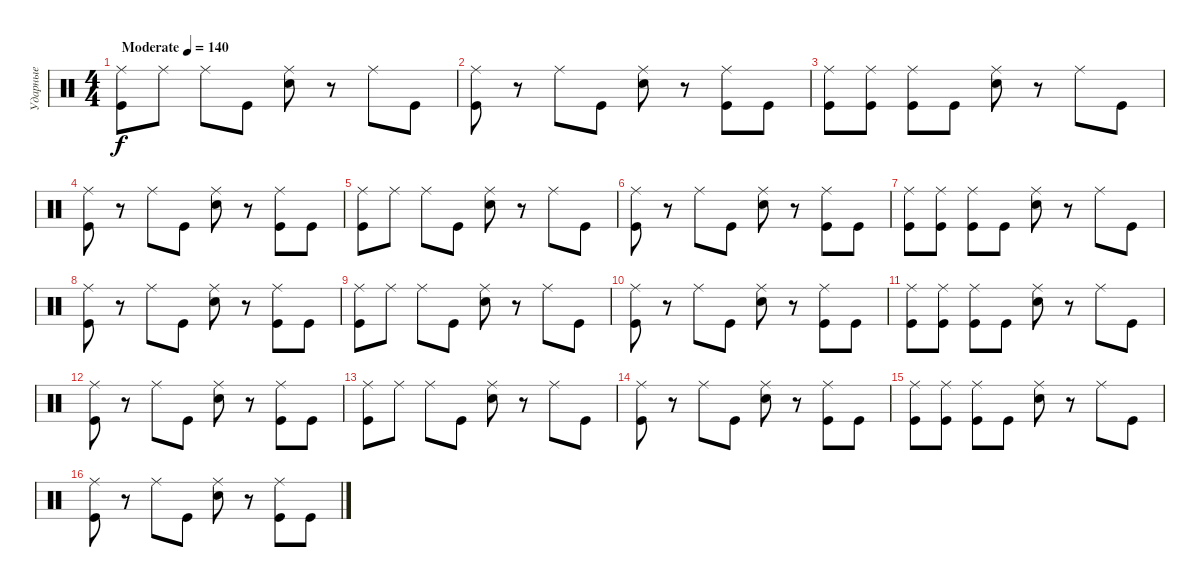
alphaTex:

\track ("Ударные" "Ударные") {instrument percussion}
\staff {score}
\articulation defaults
\ts (4 4)
\tempo (140 "Moderate")
\clef neutral
\ks c
("Ride (middle)" "Kick (hit)").8{dy f} "Ride (middle)".8 "Ride (middle)".8 "Kick (hit)".8 ("Ride (middle)" "Electric Snare (hit)").8 r.8 "Ride (middle)".8 "Kick (hit)".8 |
("Ride (middle)" "Kick (hit)").8 r.8 "Ride (middle)".8 "Kick (hit)".8 ("Ride (middle)" "Electric Snare (hit)").8 r.8 ("Ride (middle)" "Kick (hit)").8 "Kick (hit)".8 |
("Ride (middle)" "Kick (hit)").8 ("Ride (middle)" "Kick (hit)").8 ("Ride (middle)" "Kick (hit)").8 "Kick (hit)".8 ("Ride (middle)" "Electric Snare (hit)").8 r.8 "Ride (middle)".8 "Kick (hit)".8 |
("Ride (middle)" "Kick (hit)").8 r.8 "Ride (middle)".8 "Kick (hit)".8 ("Ride (middle)" "Electric Snare (hit)").8 r.8 ("Ride (middle)" "Kick (hit)").8 "Kick (hit)".8 |
("Ride (middle)" "Kick (hit)").8 "Ride (middle)".8 "Ride (middle)".8 "Kick (hit)".8 ("Ride (middle)" "Electric Snare (hit)").8 r.8 "Ride (middle)".8 "Kick (hit)".8 |
("Ride (middle)" "Kick (hit)").8 r.8 "Ride (middle)".8 "Kick (hit)".8 ("Ride (middle)" "Electric Snare (hit)").8 r.8 ("Ride (middle)" "Kick (hit)").8 "Kick (hit)".8 |
("Ride (middle)" "Kick (hit)").8 ("Ride (middle)" "Kick (hit)").8 ("Ride (middle)" "Kick (hit)").8 "Kick (hit)".8 ("Ride (middle)" "Electric Snare (hit)").8 r.8 "Ride (middle)".8 "Kick (hit)".8 |
("Ride (middle)" "Kick (hit)").8 r.8 "Ride (middle)".8 "Kick (hit)".8 ("Ride (middle)" "Electric Snare (hit)").8 r.8 ("Ride (middle)" "Kick (hit)").8 "Kick (hit)".8 |
("Ride (middle)" "Kick (hit)").8 "Ride (middle)".8 "Ride (middle)".8 "Kick (hit)".8 ("Ride (middle)" "Electric Snare (hit)").8 r.8 "Ride (middle)".8 "Kick (hit)".8 |
("Ride (middle)" "Kick (hit)").8 r.8 "Ride (middle)".8 "Kick (hit)".8 ("Ride (middle)" "Electric Snare (hit)").8 r.8 ("Ride (middle)" "Kick (hit)").8 "Kick (hit)".8 |
("Ride (middle)" "Kick (hit)").8 ("Ride (middle)" "Kick (hit)").8 ("Ride (middle)" "Kick (hit)").8 "Kick (hit)".8 ("Ride (middle)" "Electric Snare (hit)").8 r.8 "Ride (middle)".8 "Kick (hit)".8 |
("Ride (middle)" "Kick (hit)").8 r.8 "Ride (middle)".8 "Kick (hit)".8 ("Ride (middle)" "Electric Snare (hit)").8 r.8 ("Ride (middle)" "Kick (hit)").8 "Kick (hit)".8 |
("Ride (middle)" "Kick (hit)").8 "Ride (middle)".8 "Ride (middle)".8 "Kick (hit)".8 ("Ride (middle)" "Electric Snare (hit)").8 r.8 "Ride (middle)".8 "Kick (hit)".8 |
("Ride (middle)" "Kick (hit)").8 r.8 "Ride (middle)".8 "Kick (hit)".8 ("Ride (middle)" "Electric Snare (hit)").8 r.8 ("Ride (middle)" "Kick (hit)").8 "Kick (hit)".8 |
("Ride (middle)" "Kick (hit)").8 ("Ride (middle)" "Kick (hit)").8 ("Ride (middle)" "Kick (hit)").8 "Kick (hit)".8 ("Ride (middle)" "Electric Snare (hit)").8 r.8 "Ride (middle)".8 "Kick (hit)".8 |
("Ride (middle)" "Kick (hit)").8 r.8 "Ride (middle)".8 "Kick (hit)".8 ("Ride (middle)" "Electric Snare (hit)").8 r.8 ("Ride (middle)" "Kick (hit)").8 "Kick (hit)".8
